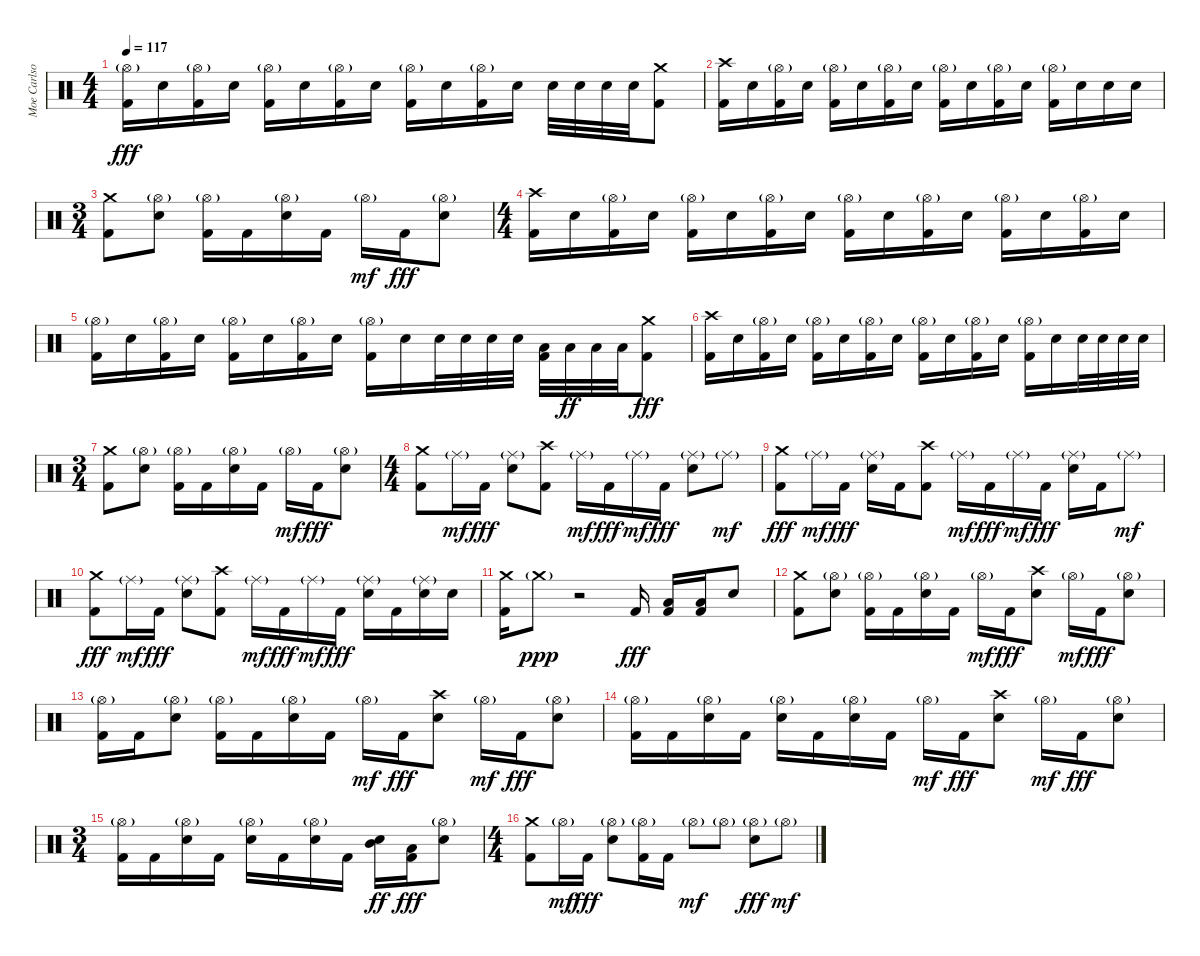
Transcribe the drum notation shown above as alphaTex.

\track ("Moe Carlson" "Moe Carlso") {instrument percussion}
\staff {score}
\articulation defaults
\ts (4 4)
\tempo 117
\clef neutral
\ks c
("Hi-Hat (open)"{g} "Kick (hit) 2").16{dy fff} "Electric Snare (hit)".16 ("Hi-Hat (open)"{g} "Kick (hit) 2").16 "Electric Snare (hit)".16 ("Hi-Hat (open)"{g} "Kick (hit) 2").16 "Electric Snare (hit)".16 ("Hi-Hat (open)"{g} "Kick (hit) 2").16 "Electric Snare (hit)".16 ("Hi-Hat (open)"{g} "Kick (hit) 2").16 "Electric Snare (hit)".16 ("Hi-Hat (open)"{g} "Kick (hit) 2").16 "Electric Snare (hit)".16 "Electric Snare (hit)".32 "Electric Snare (hit)".32 "Electric Snare (hit)".32 "Electric Snare (hit)".32 ("Crash medium (hit)" "Kick (hit) 2").8 |
("Crash high (hit)" "Kick (hit) 2").16 "Electric Snare (hit)".16 ("Hi-Hat (open)"{g} "Kick (hit) 2").16 "Electric Snare (hit)".16 ("Hi-Hat (open)"{g} "Kick (hit) 2").16 "Electric Snare (hit)".16 ("Hi-Hat (open)"{g} "Kick (hit) 2").16 "Electric Snare (hit)".16 ("Hi-Hat (open)"{g} "Kick (hit) 2").16 "Electric Snare (hit)".16 ("Hi-Hat (open)"{g} "Kick (hit) 2").16 "Electric Snare (hit)".16 ("Hi-Hat (open)"{g} "Kick (hit) 2").16 "Electric Snare (hit)".16 "Electric Snare (hit)".16 "Electric Snare (hit)".16 |
\ts (3 4)
("Crash medium (hit)" "Kick (hit) 2").8 ("Hi-Hat (open)"{g} "Electric Snare (hit)").8 ("Hi-Hat (open)"{g} "Kick (hit) 2").16 "Kick (hit) 2".16 ("Hi-Hat (open)"{g} "Electric Snare (hit)").16 "Kick (hit) 2".16 "Hi-Hat (open)"{g}.16{dy mf} "Kick (hit) 2".16{dy fff} ("Hi-Hat (open)"{g} "Electric Snare (hit)").8 |
\ts (4 4)
("Crash high (hit)" "Kick (hit) 2").16 "Electric Snare (hit)".16 ("Hi-Hat (open)"{g} "Kick (hit) 2").16 "Electric Snare (hit)".16 ("Hi-Hat (open)"{g} "Kick (hit) 2").16 "Electric Snare (hit)".16 ("Hi-Hat (open)"{g} "Kick (hit) 2").16 "Electric Snare (hit)".16 ("Hi-Hat (open)"{g} "Kick (hit) 2").16 "Electric Snare (hit)".16 ("Hi-Hat (open)"{g} "Kick (hit) 2").16 "Electric Snare (hit)".16 ("Hi-Hat (open)"{g} "Kick (hit) 2").16 "Electric Snare (hit)".16 ("Hi-Hat (open)"{g} "Kick (hit) 2").16 "Electric Snare (hit)".16 |
("Hi-Hat (open)"{g} "Kick (hit) 2").16 "Electric Snare (hit)".16 ("Hi-Hat (open)"{g} "Kick (hit) 2").16 "Electric Snare (hit)".16 ("Hi-Hat (open)"{g} "Kick (hit) 2").16 "Electric Snare (hit)".16 ("Hi-Hat (open)"{g} "Kick (hit) 2").16 "Electric Snare (hit)".16 ("Hi-Hat (open)"{g} "Kick (hit) 2").16 "Electric Snare (hit)".16 "Electric Snare (hit)".32 "Electric Snare (hit)".32 "Electric Snare (hit)".32 "Electric Snare (hit)".32 ("Low Tom (hit)" "Kick (hit) 2").32 "Low Tom (hit)".32{dy ff} "Low Tom (hit)".32 "Low Tom (hit)".32 ("Crash medium (hit)" "Kick (hit) 2").8{dy fff} |
("Crash high (hit)" "Kick (hit) 2").16 "Electric Snare (hit)".16 ("Hi-Hat (open)"{g} "Kick (hit) 2").16 "Electric Snare (hit)".16 ("Hi-Hat (open)"{g} "Kick (hit) 2").16 "Electric Snare (hit)".16 ("Hi-Hat (open)"{g} "Kick (hit) 2").16 "Electric Snare (hit)".16 ("Hi-Hat (open)"{g} "Kick (hit) 2").16 "Electric Snare (hit)".16 ("Hi-Hat (open)"{g} "Kick (hit) 2").16 "Electric Snare (hit)".16 ("Hi-Hat (open)"{g} "Kick (hit) 2").16 "Electric Snare (hit)".16 "Electric Snare (hit)".32 "Electric Snare (hit)".32 "Electric Snare (hit)".32 "Electric Snare (hit)".32 |
\ts (3 4)
("Crash medium (hit)" "Kick (hit) 2").8 ("Hi-Hat (open)"{g} "Electric Snare (hit)").8 ("Hi-Hat (open)"{g} "Kick (hit) 2").16 "Kick (hit) 2".16 ("Hi-Hat (open)"{g} "Electric Snare (hit)").16 "Kick (hit) 2".16 "Hi-Hat (open)"{g}.16{dy mf} "Kick (hit) 2".16{dy fff} ("Hi-Hat (open)"{g} "Electric Snare (hit)").8 |
\ts (4 4)
("Crash medium (hit)" "Kick (hit) 2").8 "Ride (middle)"{g}.16{dy mf} "Kick (hit) 2".16{dy fff} ("Ride (middle)"{g} "Electric Snare (hit)").8 ("Crash high (hit)" "Kick (hit) 2").8 "Ride (middle)"{g}.16{dy mf} "Kick (hit) 2".16{dy fff} "Ride (middle)"{g}.16{dy mf} "Kick (hit) 2".16{dy fff} ("Ride (middle)"{g} "Electric Snare (hit)").8 "Ride (middle)"{g}.8{dy mf} |
("Crash medium (hit)" "Kick (hit) 2").8{dy fff} "Ride (middle)"{g}.16{dy mf} "Kick (hit) 2".16{dy fff} ("Ride (middle)"{g} "Electric Snare (hit)").16 "Kick (hit) 2".16 ("Crash high (hit)" "Kick (hit) 2").8 "Ride (middle)"{g}.16{dy mf} "Kick (hit) 2".16{dy fff} "Ride (middle)"{g}.16{dy mf} "Kick (hit) 2".16{dy fff} ("Ride (middle)"{g} "Electric Snare (hit)").16 "Kick (hit) 2".16 "Ride (middle)"{g}.8{dy mf} |
("Crash medium (hit)" "Kick (hit) 2").8{dy fff} "Ride (middle)"{g}.16{dy mf} "Kick (hit) 2".16{dy fff} ("Ride (middle)"{g} "Electric Snare (hit)").8 ("Crash high (hit)" "Kick (hit) 2").8 "Ride (middle)"{g}.16{dy mf} "Kick (hit) 2".16{dy fff} "Ride (middle)"{g}.16{dy mf} "Kick (hit) 2".16{dy fff} ("Ride (middle)"{g} "Electric Snare (hit)").16 "Kick (hit) 2".16 ("Ride (middle)"{g} "Electric Snare (hit)").16 "Electric Snare (hit)".16 |
("Crash medium (hit)" "Kick (hit) 2").16 "Crash medium (hit)"{g}.8{dy ppp} r.2 "Kick (hit) 2".16{dy fff} ("Low Floor Tom (hit)" "Kick (hit) 2").16 ("Low Floor Tom (hit)" "Kick (hit) 2").16 "Electric Snare (hit)".8 |
("Crash medium (hit)" "Kick (hit) 2").8 ("Hi-Hat (open)"{g} "Electric Snare (hit)").8 ("Hi-Hat (open)"{g} "Kick (hit) 2").16 "Kick (hit) 2".16 ("Hi-Hat (open)"{g} "Electric Snare (hit)").16 "Kick (hit) 2".16 "Hi-Hat (open)"{g}.16{dy mf} "Kick (hit) 2".16{dy fff} ("Crash high (hit)" "Electric Snare (hit)").8 "Hi-Hat (open)"{g}.16{dy mf} "Kick (hit) 2".16{dy fff} ("Hi-Hat (open)"{g} "Electric Snare (hit)").8 |
("Hi-Hat (open)"{g} "Kick (hit) 2").16 "Kick (hit) 2".16 ("Hi-Hat (open)"{g} "Electric Snare (hit)").8 ("Hi-Hat (open)"{g} "Kick (hit) 2").16 "Kick (hit) 2".16 ("Hi-Hat (open)"{g} "Electric Snare (hit)").16 "Kick (hit) 2".16 "Hi-Hat (open)"{g}.16{dy mf} "Kick (hit) 2".16{dy fff} ("Crash high (hit)" "Electric Snare (hit)").8 "Hi-Hat (open)"{g}.16{dy mf} "Kick (hit) 2".16{dy fff} ("Hi-Hat (open)"{g} "Electric Snare (hit)").8 |
("Hi-Hat (open)"{g} "Kick (hit) 2").16 "Kick (hit) 2".16 ("Hi-Hat (open)"{g} "Electric Snare (hit)").16 "Kick (hit) 2".16 ("Hi-Hat (open)"{g} "Electric Snare (hit)").16 "Kick (hit) 2".16 ("Hi-Hat (open)"{g} "Electric Snare (hit)").16 "Kick (hit) 2".16 "Hi-Hat (open)"{g}.16{dy mf} "Kick (hit) 2".16{dy fff} ("Crash high (hit)" "Electric Snare (hit)").8 "Hi-Hat (open)"{g}.16{dy mf} "Kick (hit) 2".16{dy fff} ("Hi-Hat (open)"{g} "Electric Snare (hit)").8 |
\ts (3 4)
("Hi-Hat (open)"{g} "Kick (hit) 2").16 "Kick (hit) 2".16 ("Hi-Hat (open)"{g} "Electric Snare (hit)").16 "Kick (hit) 2".16 ("Hi-Hat (open)"{g} "Electric Snare (hit)").16 "Kick (hit) 2".16 ("Hi-Hat (open)"{g} "Electric Snare (hit)").16 "Kick (hit) 2".16 ("Electric Snare (hit)" "Mid Tom (hit)").16{dy ff} ("Low Tom (hit)" "Kick (hit) 2").16{dy fff} ("Hi-Hat (open)"{g} "Electric Snare (hit)").8 |
\ts (4 4)
("Crash medium (hit)" "Kick (hit) 2").8 "Hi-Hat (open)"{g}.16{dy mf} "Kick (hit) 2".16{dy fff} ("Hi-Hat (open)"{g} "Electric Snare (hit)").8 ("Hi-Hat (open)"{g} "Kick (hit) 2").16 "Kick (hit) 2".16 "Hi-Hat (open)"{g}.8{dy mf} "Hi-Hat (open)"{g}.8 ("Hi-Hat (open)"{g} "Electric Snare (hit)").8{dy fff} "Hi-Hat (open)"{g}.8{dy mf}
